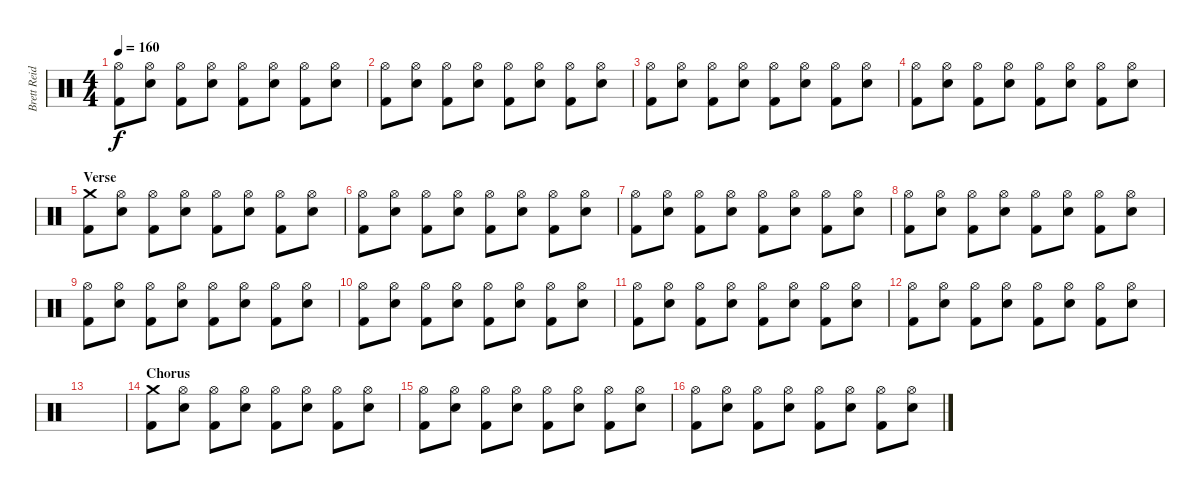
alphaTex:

\track ("Brett Reid" "Brett Reid") {instrument percussion}
\staff {score}
\articulation defaults
\ts (4 4)
\tempo 160
\clef neutral
\ks c
("Hi-Hat (open)" "Kick (hit) 2").8{dy f} ("Hi-Hat (open)" "Electric Snare (hit)").8 ("Hi-Hat (open)" "Kick (hit) 2").8 ("Hi-Hat (open)" "Electric Snare (hit)").8 ("Hi-Hat (open)" "Kick (hit) 2").8 ("Hi-Hat (open)" "Electric Snare (hit)").8 ("Hi-Hat (open)" "Kick (hit) 2").8 ("Hi-Hat (open)" "Electric Snare (hit)").8 |
("Hi-Hat (open)" "Kick (hit) 2").8 ("Hi-Hat (open)" "Electric Snare (hit)").8 ("Hi-Hat (open)" "Kick (hit) 2").8 ("Hi-Hat (open)" "Electric Snare (hit)").8 ("Hi-Hat (open)" "Kick (hit) 2").8 ("Hi-Hat (open)" "Electric Snare (hit)").8 ("Hi-Hat (open)" "Kick (hit) 2").8 ("Hi-Hat (open)" "Electric Snare (hit)").8 |
("Hi-Hat (open)" "Kick (hit) 2").8 ("Hi-Hat (open)" "Electric Snare (hit)").8 ("Hi-Hat (open)" "Kick (hit) 2").8 ("Hi-Hat (open)" "Electric Snare (hit)").8 ("Hi-Hat (open)" "Kick (hit) 2").8 ("Hi-Hat (open)" "Electric Snare (hit)").8 ("Hi-Hat (open)" "Kick (hit) 2").8 ("Hi-Hat (open)" "Electric Snare (hit)").8 |
("Hi-Hat (open)" "Kick (hit) 2").8 ("Hi-Hat (open)" "Electric Snare (hit)").8 ("Hi-Hat (open)" "Kick (hit) 2").8 ("Hi-Hat (open)" "Electric Snare (hit)").8 ("Hi-Hat (open)" "Kick (hit) 2").8 ("Hi-Hat (open)" "Electric Snare (hit)").8 ("Hi-Hat (open)" "Kick (hit) 2").8 ("Hi-Hat (open)" "Electric Snare (hit)").8 |
\section ("" "Verse")
("Crash medium (hit)" "Kick (hit) 2").8 ("Hi-Hat (open)" "Electric Snare (hit)").8 ("Hi-Hat (open)" "Kick (hit) 2").8 ("Hi-Hat (open)" "Electric Snare (hit)").8 ("Hi-Hat (open)" "Kick (hit) 2").8 ("Hi-Hat (open)" "Electric Snare (hit)").8 ("Hi-Hat (open)" "Kick (hit) 2").8 ("Hi-Hat (open)" "Electric Snare (hit)").8 |
("Hi-Hat (open)" "Kick (hit) 2").8 ("Hi-Hat (open)" "Electric Snare (hit)").8 ("Hi-Hat (open)" "Kick (hit) 2").8 ("Hi-Hat (open)" "Electric Snare (hit)").8 ("Hi-Hat (open)" "Kick (hit) 2").8 ("Hi-Hat (open)" "Electric Snare (hit)").8 ("Hi-Hat (open)" "Kick (hit) 2").8 ("Hi-Hat (open)" "Electric Snare (hit)").8 |
("Hi-Hat (open)" "Kick (hit) 2").8 ("Hi-Hat (open)" "Electric Snare (hit)").8 ("Hi-Hat (open)" "Kick (hit) 2").8 ("Hi-Hat (open)" "Electric Snare (hit)").8 ("Hi-Hat (open)" "Kick (hit) 2").8 ("Hi-Hat (open)" "Electric Snare (hit)").8 ("Hi-Hat (open)" "Kick (hit) 2").8 ("Hi-Hat (open)" "Electric Snare (hit)").8 |
("Hi-Hat (open)" "Kick (hit) 2").8 ("Hi-Hat (open)" "Electric Snare (hit)").8 ("Hi-Hat (open)" "Kick (hit) 2").8 ("Hi-Hat (open)" "Electric Snare (hit)").8 ("Hi-Hat (open)" "Kick (hit) 2").8 ("Hi-Hat (open)" "Electric Snare (hit)").8 ("Hi-Hat (open)" "Kick (hit) 2").8 ("Hi-Hat (open)" "Electric Snare (hit)").8 |
("Hi-Hat (open)" "Kick (hit) 2").8 ("Hi-Hat (open)" "Electric Snare (hit)").8 ("Hi-Hat (open)" "Kick (hit) 2").8 ("Hi-Hat (open)" "Electric Snare (hit)").8 ("Hi-Hat (open)" "Kick (hit) 2").8 ("Hi-Hat (open)" "Electric Snare (hit)").8 ("Hi-Hat (open)" "Kick (hit) 2").8 ("Hi-Hat (open)" "Electric Snare (hit)").8 |
("Hi-Hat (open)" "Kick (hit) 2").8 ("Hi-Hat (open)" "Electric Snare (hit)").8 ("Hi-Hat (open)" "Kick (hit) 2").8 ("Hi-Hat (open)" "Electric Snare (hit)").8 ("Hi-Hat (open)" "Kick (hit) 2").8 ("Hi-Hat (open)" "Electric Snare (hit)").8 ("Hi-Hat (open)" "Kick (hit) 2").8 ("Hi-Hat (open)" "Electric Snare (hit)").8 |
("Hi-Hat (open)" "Kick (hit) 2").8 ("Hi-Hat (open)" "Electric Snare (hit)").8 ("Hi-Hat (open)" "Kick (hit) 2").8 ("Hi-Hat (open)" "Electric Snare (hit)").8 ("Hi-Hat (open)" "Kick (hit) 2").8 ("Hi-Hat (open)" "Electric Snare (hit)").8 ("Hi-Hat (open)" "Kick (hit) 2").8 ("Hi-Hat (open)" "Electric Snare (hit)").8 |
("Hi-Hat (open)" "Kick (hit) 2").8 ("Hi-Hat (open)" "Electric Snare (hit)").8 ("Hi-Hat (open)" "Kick (hit) 2").8 ("Hi-Hat (open)" "Electric Snare (hit)").8 ("Hi-Hat (open)" "Kick (hit) 2").8 ("Hi-Hat (open)" "Electric Snare (hit)").8 ("Hi-Hat (open)" "Kick (hit) 2").8 ("Hi-Hat (open)" "Electric Snare (hit)").8 |
|
\section ("" "Chorus")
("Crash medium (hit)" "Kick (hit) 2").8 ("Hi-Hat (open)" "Electric Snare (hit)").8 ("Hi-Hat (open)" "Kick (hit) 2").8 ("Hi-Hat (open)" "Electric Snare (hit)").8 ("Hi-Hat (open)" "Kick (hit) 2").8 ("Hi-Hat (open)" "Electric Snare (hit)").8 ("Hi-Hat (open)" "Kick (hit) 2").8 ("Hi-Hat (open)" "Electric Snare (hit)").8 |
("Hi-Hat (open)" "Kick (hit) 2").8 ("Hi-Hat (open)" "Electric Snare (hit)").8 ("Hi-Hat (open)" "Kick (hit) 2").8 ("Hi-Hat (open)" "Electric Snare (hit)").8 ("Hi-Hat (open)" "Kick (hit) 2").8 ("Hi-Hat (open)" "Electric Snare (hit)").8 ("Hi-Hat (open)" "Kick (hit) 2").8 ("Hi-Hat (open)" "Electric Snare (hit)").8 |
("Hi-Hat (open)" "Kick (hit) 2").8 ("Hi-Hat (open)" "Electric Snare (hit)").8 ("Hi-Hat (open)" "Kick (hit) 2").8 ("Hi-Hat (open)" "Electric Snare (hit)").8 ("Hi-Hat (open)" "Kick (hit) 2").8 ("Hi-Hat (open)" "Electric Snare (hit)").8 ("Hi-Hat (open)" "Kick (hit) 2").8 ("Hi-Hat (open)" "Electric Snare (hit)").8
